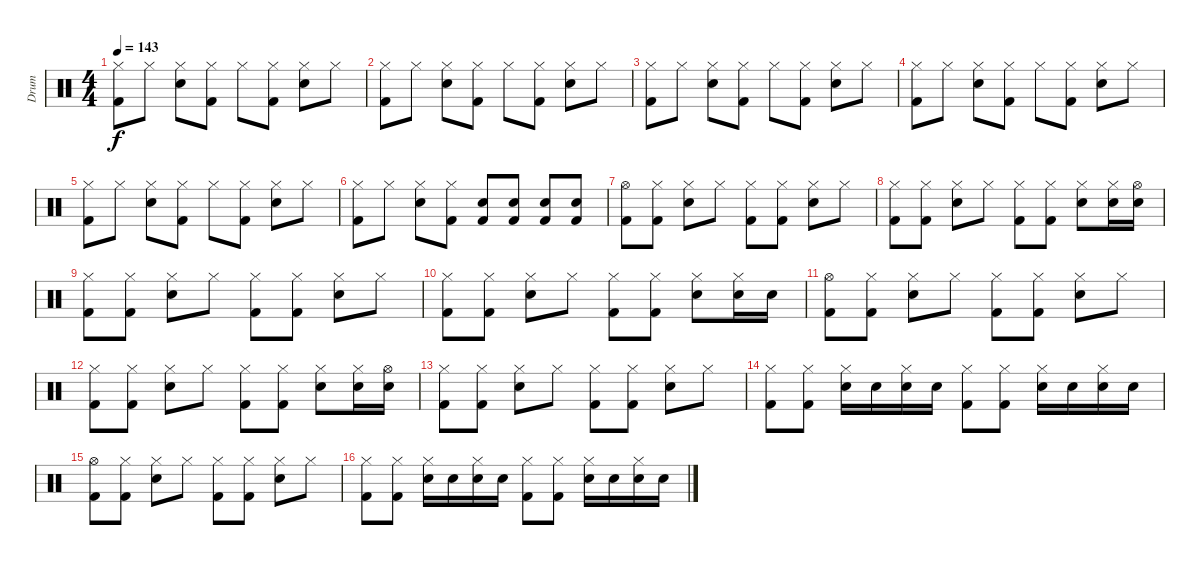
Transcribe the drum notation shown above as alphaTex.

\track ("Drum" "Drum") {instrument percussion}
\staff {score}
\articulation defaults
\ts (4 4)
\tempo 143
\clef neutral
\ks c
("Hi-Hat (closed)" "Kick (hit) 2").8{dy f} "Hi-Hat (closed)".8 ("Hi-Hat (closed)" "Electric Snare (hit)").8 ("Hi-Hat (closed)" "Kick (hit) 2").8 "Hi-Hat (closed)".8 ("Hi-Hat (closed)" "Kick (hit) 2").8 ("Hi-Hat (closed)" "Electric Snare (hit)").8 "Hi-Hat (closed)".8 |
("Hi-Hat (closed)" "Kick (hit) 2").8 "Hi-Hat (closed)".8 ("Hi-Hat (closed)" "Electric Snare (hit)").8 ("Hi-Hat (closed)" "Kick (hit) 2").8 "Hi-Hat (closed)".8 ("Hi-Hat (closed)" "Kick (hit) 2").8 ("Hi-Hat (closed)" "Electric Snare (hit)").8 "Hi-Hat (closed)".8 |
("Hi-Hat (closed)" "Kick (hit) 2").8 "Hi-Hat (closed)".8 ("Hi-Hat (closed)" "Electric Snare (hit)").8 ("Hi-Hat (closed)" "Kick (hit) 2").8 "Hi-Hat (closed)".8 ("Hi-Hat (closed)" "Kick (hit) 2").8 ("Hi-Hat (closed)" "Electric Snare (hit)").8 "Hi-Hat (closed)".8 |
("Hi-Hat (closed)" "Kick (hit) 2").8 "Hi-Hat (closed)".8 ("Hi-Hat (closed)" "Electric Snare (hit)").8 ("Hi-Hat (closed)" "Kick (hit) 2").8 "Hi-Hat (closed)".8 ("Hi-Hat (closed)" "Kick (hit) 2").8 ("Hi-Hat (closed)" "Electric Snare (hit)").8 "Hi-Hat (closed)".8 |
("Hi-Hat (closed)" "Kick (hit) 2").8 "Hi-Hat (closed)".8 ("Hi-Hat (closed)" "Electric Snare (hit)").8 ("Hi-Hat (closed)" "Kick (hit) 2").8 "Hi-Hat (closed)".8 ("Hi-Hat (closed)" "Kick (hit) 2").8 ("Hi-Hat (closed)" "Electric Snare (hit)").8 "Hi-Hat (closed)".8 |
("Hi-Hat (closed)" "Kick (hit) 2").8 "Hi-Hat (closed)".8 ("Hi-Hat (closed)" "Electric Snare (hit)").8 ("Hi-Hat (closed)" "Kick (hit) 2").8 ("Electric Snare (hit)" "Kick (hit) 2").8 ("Electric Snare (hit)" "Kick (hit) 2").8 ("Electric Snare (hit)" "Kick (hit) 2").8 ("Electric Snare (hit)" "Kick (hit) 2").8 |
("Hi-Hat (open)" "Kick (hit) 2").8 ("Hi-Hat (closed)" "Kick (hit) 2").8 ("Hi-Hat (closed)" "Electric Snare (hit)").8 "Hi-Hat (closed)".8 ("Hi-Hat (closed)" "Kick (hit) 2").8 ("Hi-Hat (closed)" "Kick (hit) 2").8 ("Hi-Hat (closed)" "Electric Snare (hit)").8 "Hi-Hat (closed)".8 |
("Hi-Hat (closed)" "Kick (hit) 2").8 ("Hi-Hat (closed)" "Kick (hit) 2").8 ("Hi-Hat (closed)" "Electric Snare (hit)").8 "Hi-Hat (closed)".8 ("Hi-Hat (closed)" "Kick (hit) 2").8 ("Hi-Hat (closed)" "Kick (hit) 2").8 ("Hi-Hat (closed)" "Electric Snare (hit)").8 ("Hi-Hat (closed)" "Electric Snare (hit)").16 ("Hi-Hat (open)" "Electric Snare (hit)").16 |
("Hi-Hat (closed)" "Kick (hit) 2").8 ("Hi-Hat (closed)" "Kick (hit) 2").8 ("Hi-Hat (closed)" "Electric Snare (hit)").8 "Hi-Hat (closed)".8 ("Hi-Hat (closed)" "Kick (hit) 2").8 ("Hi-Hat (closed)" "Kick (hit) 2").8 ("Hi-Hat (closed)" "Electric Snare (hit)").8 "Hi-Hat (closed)".8 |
("Hi-Hat (closed)" "Kick (hit) 2").8 ("Hi-Hat (closed)" "Kick (hit) 2").8 ("Hi-Hat (closed)" "Electric Snare (hit)").8 "Hi-Hat (closed)".8 ("Hi-Hat (closed)" "Kick (hit) 2").8 ("Hi-Hat (closed)" "Kick (hit) 2").8 ("Hi-Hat (closed)" "Electric Snare (hit)").8 ("Hi-Hat (closed)" "Electric Snare (hit)").16 "Electric Snare (hit)".16 |
("Hi-Hat (open)" "Kick (hit) 2").8 ("Hi-Hat (closed)" "Kick (hit) 2").8 ("Hi-Hat (closed)" "Electric Snare (hit)").8 "Hi-Hat (closed)".8 ("Hi-Hat (closed)" "Kick (hit) 2").8 ("Hi-Hat (closed)" "Kick (hit) 2").8 ("Hi-Hat (closed)" "Electric Snare (hit)").8 "Hi-Hat (closed)".8 |
("Hi-Hat (closed)" "Kick (hit) 2").8 ("Hi-Hat (closed)" "Kick (hit) 2").8 ("Hi-Hat (closed)" "Electric Snare (hit)").8 "Hi-Hat (closed)".8 ("Hi-Hat (closed)" "Kick (hit) 2").8 ("Hi-Hat (closed)" "Kick (hit) 2").8 ("Hi-Hat (closed)" "Electric Snare (hit)").8 ("Hi-Hat (closed)" "Electric Snare (hit)").16 ("Hi-Hat (open)" "Electric Snare (hit)").16 |
("Hi-Hat (closed)" "Kick (hit) 2").8 ("Hi-Hat (closed)" "Kick (hit) 2").8 ("Hi-Hat (closed)" "Electric Snare (hit)").8 "Hi-Hat (closed)".8 ("Hi-Hat (closed)" "Kick (hit) 2").8 ("Hi-Hat (closed)" "Kick (hit) 2").8 ("Hi-Hat (closed)" "Electric Snare (hit)").8 "Hi-Hat (closed)".8 |
("Hi-Hat (closed)" "Kick (hit) 2").8 ("Hi-Hat (closed)" "Kick (hit) 2").8 ("Hi-Hat (closed)" "Electric Snare (hit)").16 "Electric Snare (hit)".16 ("Hi-Hat (closed)" "Electric Snare (hit)").16 "Electric Snare (hit)".16 ("Hi-Hat (closed)" "Kick (hit) 2").8 ("Hi-Hat (closed)" "Kick (hit) 2").8 ("Hi-Hat (closed)" "Electric Snare (hit)").16 "Electric Snare (hit)".16 ("Hi-Hat (closed)" "Electric Snare (hit)").16 "Electric Snare (hit)".16 |
("Hi-Hat (open)" "Kick (hit) 2").8 ("Hi-Hat (closed)" "Kick (hit) 2").8 ("Hi-Hat (closed)" "Electric Snare (hit)").8 "Hi-Hat (closed)".8 ("Hi-Hat (closed)" "Kick (hit) 2").8 ("Hi-Hat (closed)" "Kick (hit) 2").8 ("Hi-Hat (closed)" "Electric Snare (hit)").8 "Hi-Hat (closed)".8 |
("Hi-Hat (closed)" "Kick (hit) 2").8 ("Hi-Hat (closed)" "Kick (hit) 2").8 ("Hi-Hat (closed)" "Electric Snare (hit)").16 "Electric Snare (hit)".16 ("Hi-Hat (closed)" "Electric Snare (hit)").16 "Electric Snare (hit)".16 ("Hi-Hat (closed)" "Kick (hit) 2").8 ("Hi-Hat (closed)" "Kick (hit) 2").8 ("Hi-Hat (closed)" "Electric Snare (hit)").16 "Electric Snare (hit)".16 ("Hi-Hat (closed)" "Electric Snare (hit)").16 "Electric Snare (hit)".16
